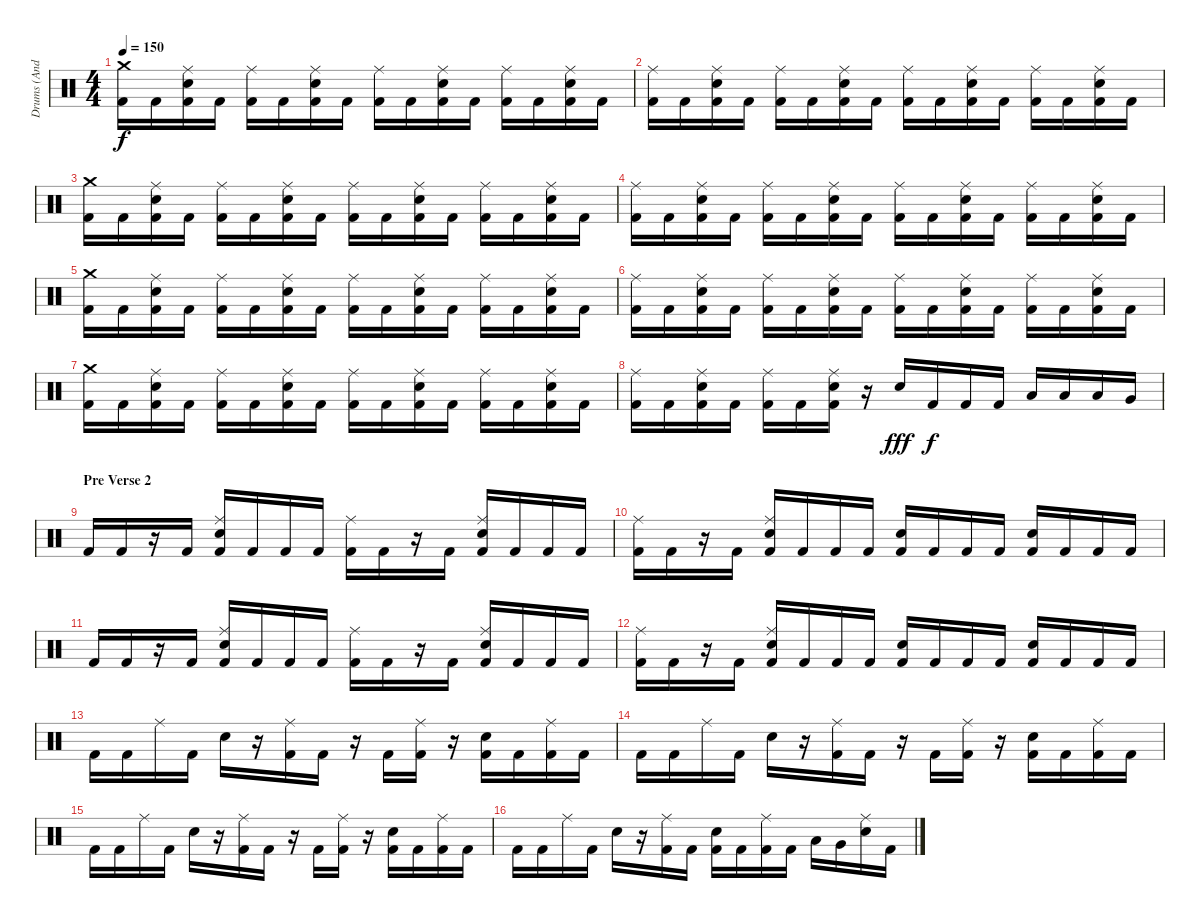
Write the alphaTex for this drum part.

\track ("Drums (Andy C)" "Drums (And") {instrument percussion}
\staff {score}
\articulation defaults
\ts (4 4)
\tempo 150
\clef neutral
\ks c
("Crash medium (hit)" "Kick (hit) 2").16{dy f} "Kick (hit) 2".16 ("Ride (middle)" "Kick (hit) 2" "Electric Snare (hit)").16 "Kick (hit) 2".16 ("Ride (middle)" "Kick (hit) 2").16 "Kick (hit) 2".16 ("Ride (middle)" "Kick (hit) 2" "Electric Snare (hit)").16 "Kick (hit) 2".16 ("Ride (middle)" "Kick (hit) 2").16 "Kick (hit) 2".16 ("Ride (middle)" "Kick (hit) 2" "Electric Snare (hit)").16 "Kick (hit) 2".16 ("Ride (middle)" "Kick (hit) 2").16 "Kick (hit) 2".16 ("Ride (middle)" "Kick (hit) 2" "Electric Snare (hit)").16 "Kick (hit) 2".16 |
("Ride (middle)" "Kick (hit) 2").16 "Kick (hit) 2".16 ("Ride (middle)" "Kick (hit) 2" "Electric Snare (hit)").16 "Kick (hit) 2".16 ("Ride (middle)" "Kick (hit) 2").16 "Kick (hit) 2".16 ("Ride (middle)" "Kick (hit) 2" "Electric Snare (hit)").16 "Kick (hit) 2".16 ("Ride (middle)" "Kick (hit) 2").16 "Kick (hit) 2".16 ("Ride (middle)" "Kick (hit) 2" "Electric Snare (hit)").16 "Kick (hit) 2".16 ("Ride (middle)" "Kick (hit) 2").16 "Kick (hit) 2".16 ("Ride (middle)" "Kick (hit) 2" "Electric Snare (hit)").16 "Kick (hit) 2".16 |
("Crash medium (hit)" "Kick (hit) 2").16 "Kick (hit) 2".16 ("Ride (middle)" "Kick (hit) 2" "Electric Snare (hit)").16 "Kick (hit) 2".16 ("Ride (middle)" "Kick (hit) 2").16 "Kick (hit) 2".16 ("Ride (middle)" "Kick (hit) 2" "Electric Snare (hit)").16 "Kick (hit) 2".16 ("Ride (middle)" "Kick (hit) 2").16 "Kick (hit) 2".16 ("Ride (middle)" "Kick (hit) 2" "Electric Snare (hit)").16 "Kick (hit) 2".16 ("Ride (middle)" "Kick (hit) 2").16 "Kick (hit) 2".16 ("Ride (middle)" "Kick (hit) 2" "Electric Snare (hit)").16 "Kick (hit) 2".16 |
("Ride (middle)" "Kick (hit) 2").16 "Kick (hit) 2".16 ("Ride (middle)" "Kick (hit) 2" "Electric Snare (hit)").16 "Kick (hit) 2".16 ("Ride (middle)" "Kick (hit) 2").16 "Kick (hit) 2".16 ("Ride (middle)" "Kick (hit) 2" "Electric Snare (hit)").16 "Kick (hit) 2".16 ("Ride (middle)" "Kick (hit) 2").16 "Kick (hit) 2".16 ("Ride (middle)" "Kick (hit) 2" "Electric Snare (hit)").16 "Kick (hit) 2".16 ("Ride (middle)" "Kick (hit) 2").16 "Kick (hit) 2".16 ("Ride (middle)" "Kick (hit) 2" "Electric Snare (hit)").16 "Kick (hit) 2".16 |
("Crash medium (hit)" "Kick (hit) 2").16 "Kick (hit) 2".16 ("Ride (middle)" "Kick (hit) 2" "Electric Snare (hit)").16 "Kick (hit) 2".16 ("Ride (middle)" "Kick (hit) 2").16 "Kick (hit) 2".16 ("Ride (middle)" "Kick (hit) 2" "Electric Snare (hit)").16 "Kick (hit) 2".16 ("Ride (middle)" "Kick (hit) 2").16 "Kick (hit) 2".16 ("Ride (middle)" "Kick (hit) 2" "Electric Snare (hit)").16 "Kick (hit) 2".16 ("Ride (middle)" "Kick (hit) 2").16 "Kick (hit) 2".16 ("Ride (middle)" "Kick (hit) 2" "Electric Snare (hit)").16 "Kick (hit) 2".16 |
("Ride (middle)" "Kick (hit) 2").16 "Kick (hit) 2".16 ("Ride (middle)" "Kick (hit) 2" "Electric Snare (hit)").16 "Kick (hit) 2".16 ("Ride (middle)" "Kick (hit) 2").16 "Kick (hit) 2".16 ("Ride (middle)" "Kick (hit) 2" "Electric Snare (hit)").16 "Kick (hit) 2".16 ("Ride (middle)" "Kick (hit) 2").16 "Kick (hit) 2".16 ("Ride (middle)" "Kick (hit) 2" "Electric Snare (hit)").16 "Kick (hit) 2".16 ("Ride (middle)" "Kick (hit) 2").16 "Kick (hit) 2".16 ("Ride (middle)" "Kick (hit) 2" "Electric Snare (hit)").16 "Kick (hit) 2".16 |
("Crash medium (hit)" "Kick (hit) 2").16 "Kick (hit) 2".16 ("Ride (middle)" "Kick (hit) 2" "Electric Snare (hit)").16 "Kick (hit) 2".16 ("Ride (middle)" "Kick (hit) 2").16 "Kick (hit) 2".16 ("Ride (middle)" "Kick (hit) 2" "Electric Snare (hit)").16 "Kick (hit) 2".16 ("Ride (middle)" "Kick (hit) 2").16 "Kick (hit) 2".16 ("Ride (middle)" "Kick (hit) 2" "Electric Snare (hit)").16 "Kick (hit) 2".16 ("Ride (middle)" "Kick (hit) 2").16 "Kick (hit) 2".16 ("Ride (middle)" "Kick (hit) 2" "Electric Snare (hit)").16 "Kick (hit) 2".16 |
("Ride (middle)" "Kick (hit) 2").16 "Kick (hit) 2".16 ("Ride (middle)" "Kick (hit) 2" "Electric Snare (hit)").16 "Kick (hit) 2".16 ("Ride (middle)" "Kick (hit) 2").16 "Kick (hit) 2".16 ("Ride (middle)" "Kick (hit) 2" "Electric Snare (hit)").16 r.16 "Electric Snare (hit)".16{dy fff} "Kick (hit) 2".16{dy f} "Kick (hit) 2".16 "Kick (hit) 2".16 "Low Tom (hit)".16 "Low Tom (hit)".16 "Low Tom (hit)".16 "Very Low Tom (hit)".16 |
\section ("" "Pre Verse 2")
"Kick (hit) 2".16 "Kick (hit) 2".16 r.16 "Kick (hit) 2".16 ("Ride (middle)" "Kick (hit) 2" "Electric Snare (hit)").16 "Kick (hit) 2".16 "Kick (hit) 2".16 "Kick (hit) 2".16 ("Ride (middle)" "Kick (hit) 2").16 "Kick (hit) 2".16 r.16 "Kick (hit) 2".16 ("Ride (middle)" "Kick (hit) 2" "Electric Snare (hit)").16 "Kick (hit) 2".16 "Kick (hit) 2".16 "Kick (hit) 2".16 |
("Ride (middle)" "Kick (hit) 2").16 "Kick (hit) 2".16 r.16 "Kick (hit) 2".16 ("Ride (middle)" "Kick (hit) 2" "Electric Snare (hit)").16 "Kick (hit) 2".16 "Kick (hit) 2".16 "Kick (hit) 2".16 ("Kick (hit) 2" "Electric Snare (hit)").16 "Kick (hit) 2".16 "Kick (hit) 2".16 "Kick (hit) 2".16 ("Kick (hit) 2" "Electric Snare (hit)").16 "Kick (hit) 2".16 "Kick (hit) 2".16 "Kick (hit) 2".16 |
"Kick (hit) 2".16 "Kick (hit) 2".16 r.16 "Kick (hit) 2".16 ("Ride (middle)" "Kick (hit) 2" "Electric Snare (hit)").16 "Kick (hit) 2".16 "Kick (hit) 2".16 "Kick (hit) 2".16 ("Ride (middle)" "Kick (hit) 2").16 "Kick (hit) 2".16 r.16 "Kick (hit) 2".16 ("Ride (middle)" "Kick (hit) 2" "Electric Snare (hit)").16 "Kick (hit) 2".16 "Kick (hit) 2".16 "Kick (hit) 2".16 |
("Ride (middle)" "Kick (hit) 2").16 "Kick (hit) 2".16 r.16 "Kick (hit) 2".16 ("Ride (middle)" "Kick (hit) 2" "Electric Snare (hit)").16 "Kick (hit) 2".16 "Kick (hit) 2".16 "Kick (hit) 2".16 ("Kick (hit) 2" "Electric Snare (hit)").16 "Kick (hit) 2".16 "Kick (hit) 2".16 "Kick (hit) 2".16 ("Kick (hit) 2" "Electric Snare (hit)").16 "Kick (hit) 2".16 "Kick (hit) 2".16 "Kick (hit) 2".16 |
"Kick (hit) 2".16 "Kick (hit) 2".16 "Ride (middle)".16 "Kick (hit) 2".16 "Electric Snare (hit)".16 r.16 ("Ride (middle)" "Kick (hit) 2").16 "Kick (hit) 2".16 r.16 "Kick (hit) 2".16 ("Ride (middle)" "Kick (hit) 2").16 r.16 ("Kick (hit) 2" "Electric Snare (hit)").16 "Kick (hit) 2".16 ("Ride (middle)" "Kick (hit) 2").16 "Kick (hit) 2".16 |
"Kick (hit) 2".16 "Kick (hit) 2".16 "Ride (middle)".16 "Kick (hit) 2".16 "Electric Snare (hit)".16 r.16 ("Ride (middle)" "Kick (hit) 2").16 "Kick (hit) 2".16 r.16 "Kick (hit) 2".16 ("Ride (middle)" "Kick (hit) 2").16 r.16 ("Kick (hit) 2" "Electric Snare (hit)").16 "Kick (hit) 2".16 ("Ride (middle)" "Kick (hit) 2").16 "Kick (hit) 2".16 |
"Kick (hit) 2".16 "Kick (hit) 2".16 "Ride (middle)".16 "Kick (hit) 2".16 "Electric Snare (hit)".16 r.16 ("Ride (middle)" "Kick (hit) 2").16 "Kick (hit) 2".16 r.16 "Kick (hit) 2".16 ("Ride (middle)" "Kick (hit) 2").16 r.16 ("Kick (hit) 2" "Electric Snare (hit)").16 "Kick (hit) 2".16 ("Ride (middle)" "Kick (hit) 2").16 "Kick (hit) 2".16 |
"Kick (hit) 2".16 "Kick (hit) 2".16 "Ride (middle)".16 "Kick (hit) 2".16 "Electric Snare (hit)".16 r.16 ("Ride (middle)" "Kick (hit) 2").16 "Kick (hit) 2".16 ("Kick (hit) 2" "Electric Snare (hit)").16 "Kick (hit) 2".16 ("Ride (middle)" "Kick (hit) 2").16 "Kick (hit) 2".16 "Low Tom (hit)".16 "Very Low Tom (hit)".16 ("Ride (middle)" "Electric Snare (hit)").16 "Kick (hit) 2".16
